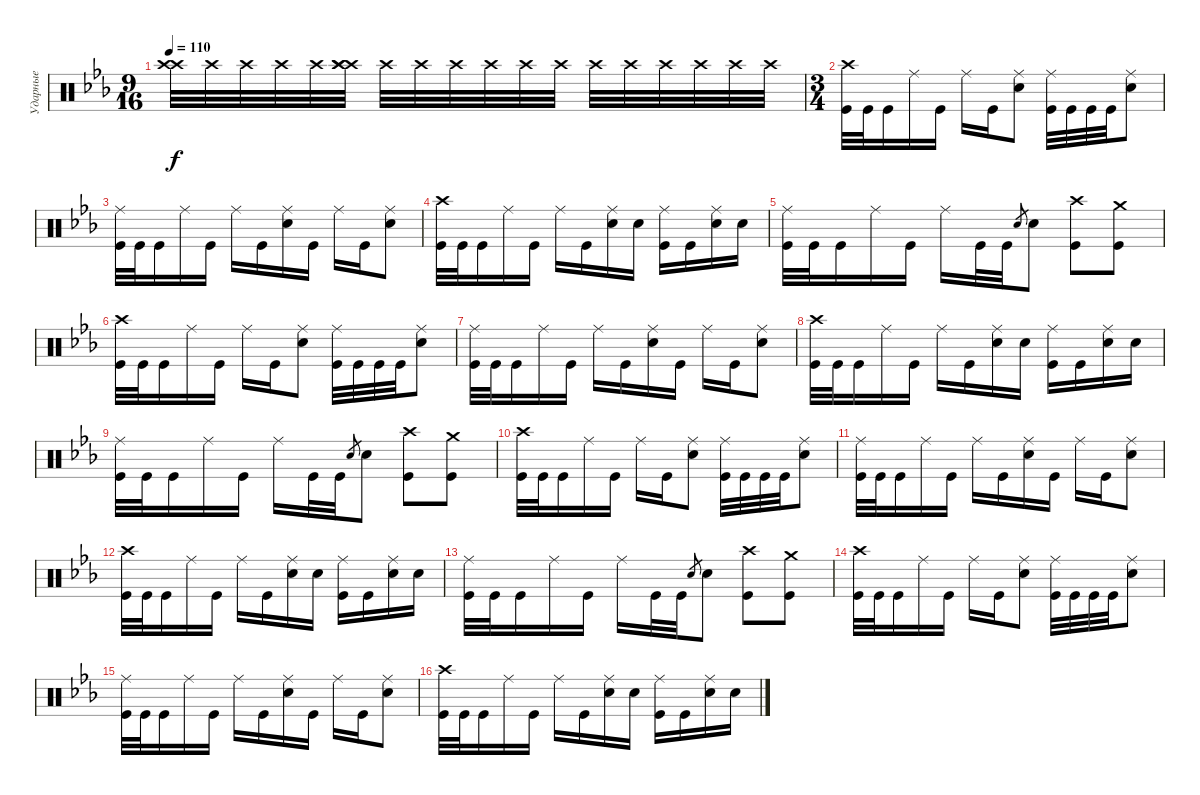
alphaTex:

\track ("Ударные" "Ударные") {instrument percussion}
\staff {score}
\articulation defaults
\ts (9 16)
\tempo 110
\clef neutral
\ks cminor
("Crash high (hit)" "Crash high (hit)").32{dy f volume 0} "Crash high (hit)".32 "Crash high (hit)".32{volume 13} "Crash high (hit)".32 "Crash high (hit)".32 ("Crash high (hit)" "Crash high (hit)" "Crash high (hit)").32 "Crash high (hit)".32 "Crash high (hit)".32 "Crash high (hit)".32 "Crash high (hit)".32 "Crash high (hit)".32 "Crash high (hit)".32 "Crash high (hit)".32 "Crash high (hit)".32 "Crash high (hit)".32 "Crash high (hit)".32 "Crash high (hit)".32 "Crash high (hit)".32 |
\ts (3 4)
("Kick (hit)" "Crash high (hit)").32 "Kick (hit)".32 "Kick (hit)".16 "Ride (middle)".16 "Kick (hit)".16 "Ride (middle)".16 "Kick (hit)".16 ("Snare (hit) 2" "Ride (middle)").8 ("Ride (middle)" "Kick (hit)").32 "Kick (hit)".32 "Kick (hit)".32 "Kick (hit)".32 ("Ride (middle)" "Snare (hit) 2").8 |
("Kick (hit)" "Ride (middle)").32 "Kick (hit)".32 "Kick (hit)".16 "Ride (middle)".16 "Kick (hit)".16 "Ride (middle)".16 "Kick (hit)".16 ("Snare (hit) 2" "Ride (middle)").16 "Kick (hit)".16 "Ride (middle)".16 "Kick (hit)".16 ("Snare (hit) 2" "Ride (middle)").8 |
("Kick (hit)" "Crash high (hit)").32 "Kick (hit)".32 "Kick (hit)".16 "Ride (middle)".16 "Kick (hit)".16 "Ride (middle)".16 "Kick (hit)".16 ("Snare (hit) 2" "Ride (middle)").16 "Snare (hit) 2".16 ("Kick (hit)" "Ride (middle)").16 "Kick (hit)".16 ("Snare (hit) 2" "Ride (middle)").16 "Snare (hit) 2".16 |
("Kick (hit)" "Ride (middle)").32 "Kick (hit)".32 "Kick (hit)".16 "Ride (middle)".16 "Kick (hit)".16 "Ride (middle)".16 "Kick (hit)".32 "Kick (hit)".32 "Snare (hit) 2".8{gr} "Snare (hit) 2".8 ("Kick (hit)" "Crash high (hit)").8 ("Kick (hit)" "Crash medium (hit)").8 |
("Kick (hit)" "Crash high (hit)").32 "Kick (hit)".32 "Kick (hit)".16 "Ride (middle)".16 "Kick (hit)".16 "Ride (middle)".16 "Kick (hit)".16 ("Snare (hit) 2" "Ride (middle)").8 ("Ride (middle)" "Kick (hit)").32 "Kick (hit)".32 "Kick (hit)".32 "Kick (hit)".32 ("Ride (middle)" "Snare (hit) 2").8 |
("Kick (hit)" "Ride (middle)").32 "Kick (hit)".32 "Kick (hit)".16 "Ride (middle)".16 "Kick (hit)".16 "Ride (middle)".16 "Kick (hit)".16 ("Snare (hit) 2" "Ride (middle)").16 "Kick (hit)".16 "Ride (middle)".16 "Kick (hit)".16 ("Snare (hit) 2" "Ride (middle)").8 |
("Kick (hit)" "Crash high (hit)").32 "Kick (hit)".32 "Kick (hit)".16 "Ride (middle)".16 "Kick (hit)".16 "Ride (middle)".16 "Kick (hit)".16 ("Snare (hit) 2" "Ride (middle)").16 "Snare (hit) 2".16 ("Kick (hit)" "Ride (middle)").16 "Kick (hit)".16 ("Snare (hit) 2" "Ride (middle)").16 "Snare (hit) 2".16 |
("Kick (hit)" "Ride (middle)").32 "Kick (hit)".32 "Kick (hit)".16 "Ride (middle)".16 "Kick (hit)".16 "Ride (middle)".16 "Kick (hit)".32 "Kick (hit)".32 "Snare (hit) 2".8{gr} "Snare (hit) 2".8 ("Kick (hit)" "Crash high (hit)").8 ("Kick (hit)" "Crash medium (hit)").8 |
("Kick (hit)" "Crash high (hit)").32 "Kick (hit)".32 "Kick (hit)".16 "Ride (middle)".16 "Kick (hit)".16 "Ride (middle)".16 "Kick (hit)".16 ("Snare (hit) 2" "Ride (middle)").8 ("Ride (middle)" "Kick (hit)").32 "Kick (hit)".32 "Kick (hit)".32 "Kick (hit)".32 ("Ride (middle)" "Snare (hit) 2").8 |
("Kick (hit)" "Ride (middle)").32 "Kick (hit)".32 "Kick (hit)".16 "Ride (middle)".16 "Kick (hit)".16 "Ride (middle)".16 "Kick (hit)".16 ("Snare (hit) 2" "Ride (middle)").16 "Kick (hit)".16 "Ride (middle)".16 "Kick (hit)".16 ("Snare (hit) 2" "Ride (middle)").8 |
("Kick (hit)" "Crash high (hit)").32 "Kick (hit)".32 "Kick (hit)".16 "Ride (middle)".16 "Kick (hit)".16 "Ride (middle)".16 "Kick (hit)".16 ("Snare (hit) 2" "Ride (middle)").16 "Snare (hit) 2".16 ("Kick (hit)" "Ride (middle)").16 "Kick (hit)".16 ("Snare (hit) 2" "Ride (middle)").16 "Snare (hit) 2".16 |
("Kick (hit)" "Ride (middle)").32 "Kick (hit)".32 "Kick (hit)".16 "Ride (middle)".16 "Kick (hit)".16 "Ride (middle)".16 "Kick (hit)".32 "Kick (hit)".32 "Snare (hit) 2".8{gr} "Snare (hit) 2".8 ("Kick (hit)" "Crash high (hit)").8 ("Kick (hit)" "Crash medium (hit)").8 |
("Kick (hit)" "Crash high (hit)").32 "Kick (hit)".32 "Kick (hit)".16 "Ride (middle)".16 "Kick (hit)".16 "Ride (middle)".16 "Kick (hit)".16 ("Snare (hit) 2" "Ride (middle)").8 ("Ride (middle)" "Kick (hit)").32 "Kick (hit)".32 "Kick (hit)".32 "Kick (hit)".32 ("Ride (middle)" "Snare (hit) 2").8 |
("Kick (hit)" "Ride (middle)").32 "Kick (hit)".32 "Kick (hit)".16 "Ride (middle)".16 "Kick (hit)".16 "Ride (middle)".16 "Kick (hit)".16 ("Snare (hit) 2" "Ride (middle)").16 "Kick (hit)".16 "Ride (middle)".16 "Kick (hit)".16 ("Snare (hit) 2" "Ride (middle)").8 |
("Kick (hit)" "Crash high (hit)").32 "Kick (hit)".32 "Kick (hit)".16 "Ride (middle)".16 "Kick (hit)".16 "Ride (middle)".16 "Kick (hit)".16 ("Snare (hit) 2" "Ride (middle)").16 "Snare (hit) 2".16 ("Kick (hit)" "Ride (middle)").16 "Kick (hit)".16 ("Snare (hit) 2" "Ride (middle)").16 "Snare (hit) 2".16
